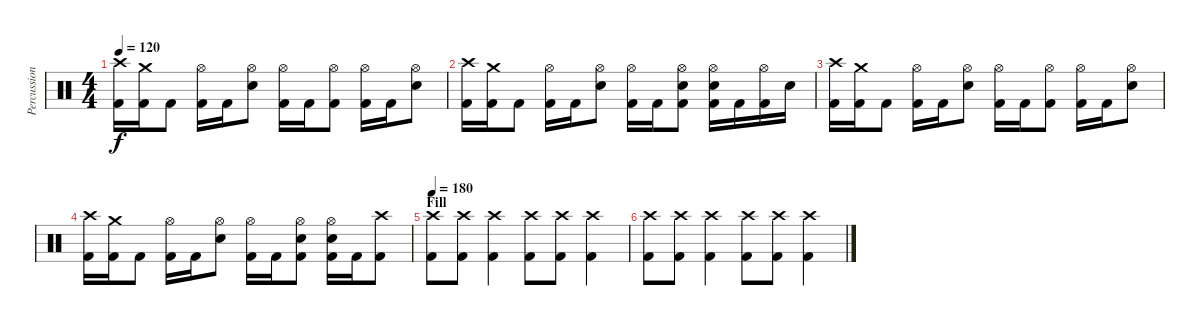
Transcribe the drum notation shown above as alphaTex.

\track ("Percussion" "Percussion") {instrument percussion}
\staff {score}
\articulation defaults
\ts (4 4)
\tempo 120
\clef neutral
\ks c
("Crash high (hit)" "Kick (hit) 2").16{dy f} ("Crash medium (hit)" "Kick (hit) 2").16 "Kick (hit) 2".8 ("Hi-Hat (open)" "Kick (hit) 2").16 "Kick (hit) 2".16 ("Hi-Hat (open)" "Electric Snare (hit)").8 ("Hi-Hat (open)" "Kick (hit) 2").16 "Kick (hit) 2".16 ("Hi-Hat (open)" "Kick (hit) 2").8 ("Hi-Hat (open)" "Kick (hit) 2").16 "Kick (hit) 2".16 ("Hi-Hat (open)" "Electric Snare (hit)").8 |
("Crash high (hit)" "Kick (hit) 2").16 ("Crash medium (hit)" "Kick (hit) 2").16 "Kick (hit) 2".8 ("Hi-Hat (open)" "Kick (hit) 2").16 "Kick (hit) 2".16 ("Hi-Hat (open)" "Electric Snare (hit)").8 ("Hi-Hat (open)" "Kick (hit) 2").16 "Kick (hit) 2".16 ("Hi-Hat (open)" "Electric Snare (hit)" "Kick (hit) 2").8 ("Hi-Hat (open)" "Electric Snare (hit)" "Kick (hit) 2").16 "Kick (hit) 2".16 ("Hi-Hat (open)" "Kick (hit) 2").16 "Electric Snare (hit)".16 |
("Crash high (hit)" "Kick (hit) 2").16 ("Crash medium (hit)" "Kick (hit) 2").16 "Kick (hit) 2".8 ("Hi-Hat (open)" "Kick (hit) 2").16 "Kick (hit) 2".16 ("Hi-Hat (open)" "Electric Snare (hit)").8 ("Hi-Hat (open)" "Kick (hit) 2").16 "Kick (hit) 2".16 ("Hi-Hat (open)" "Kick (hit) 2").8 ("Hi-Hat (open)" "Kick (hit) 2").16 "Kick (hit) 2".16 ("Hi-Hat (open)" "Electric Snare (hit)").8 |
("Crash high (hit)" "Kick (hit) 2").16 ("Crash medium (hit)" "Kick (hit) 2").16 "Kick (hit) 2".8 ("Hi-Hat (open)" "Kick (hit) 2").16 "Kick (hit) 2".16 ("Hi-Hat (open)" "Electric Snare (hit)").8 ("Hi-Hat (open)" "Kick (hit) 2").16 "Kick (hit) 2".16 ("Hi-Hat (open)" "Electric Snare (hit)" "Kick (hit) 2").8 ("Hi-Hat (open)" "Electric Snare (hit)" "Kick (hit) 2").16 "Kick (hit) 2".16 ("Crash high (hit)" "Kick (hit) 2").8 |
\section ("" "Fill")
\tempo 180
("Crash high (hit)" "Kick (hit) 2").8 ("Crash high (hit)" "Kick (hit) 2").8 ("Crash high (hit)" "Kick (hit) 2").4 ("Crash high (hit)" "Kick (hit) 2").8 ("Crash high (hit)" "Kick (hit) 2").8 ("Crash high (hit)" "Kick (hit) 2").4 |
("Crash high (hit)" "Kick (hit) 2").8 ("Crash high (hit)" "Kick (hit) 2").8 ("Crash high (hit)" "Kick (hit) 2").4 ("Crash high (hit)" "Kick (hit) 2").8 ("Crash high (hit)" "Kick (hit) 2").8 ("Crash high (hit)" "Kick (hit) 2").4
